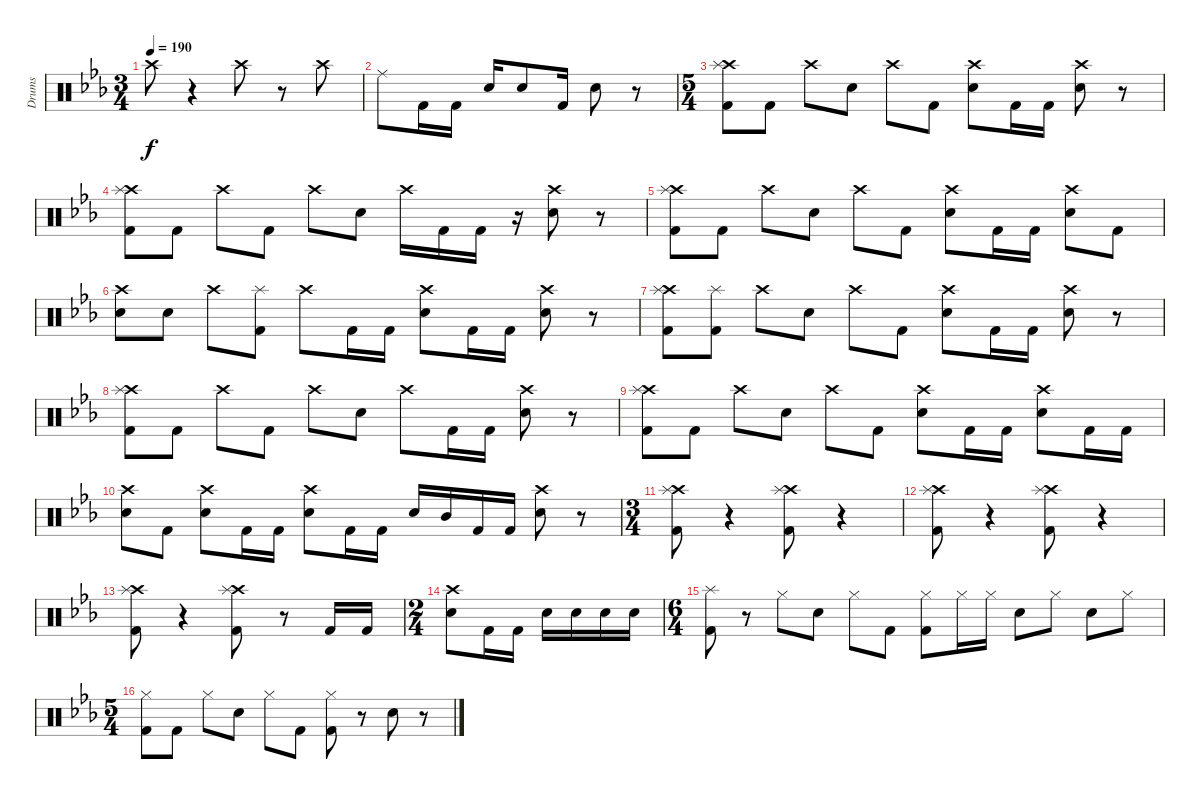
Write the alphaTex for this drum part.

\track ("Drums" "Drums") {instrument percussion}
\staff {score}
\articulation defaults
\ts (3 4)
\tempo 190
\clef neutral
\ks eb "Crash high (hit)".8{dy f}
r.4 "Crash high (hit)".8 r.8 "Crash high (hit)".8 |
"Ride (middle)".8 "Kick (hit) 2".16 "Kick (hit) 2".16 "Electric Snare (hit)".16 "Electric Snare (hit)".8 "Kick (hit) 2".16 "Electric Snare (hit)".8 r.8 |
\ts (5 4)
("Kick (hit) 2" "Crash high (hit)" "Splash (hit)").8 "Kick (hit) 2".8 "Crash high (hit)".8 "Electric Snare (hit)".8 "Crash high (hit)".8 "Kick (hit) 2".8 ("Crash high (hit)" "Electric Snare (hit)").8 "Kick (hit) 2".16 "Kick (hit) 2".16 ("Crash high (hit)" "Electric Snare (hit)").8 r.8 |
("Kick (hit) 2" "Crash high (hit)" "Splash (hit)").8 "Kick (hit) 2".8 "Crash high (hit)".8 "Kick (hit) 2".8 "Crash high (hit)".8 "Electric Snare (hit)".8 "Crash high (hit)".16 "Kick (hit) 2".16 "Kick (hit) 2".16 r.16 ("Crash high (hit)" "Electric Snare (hit)").8 r.8 |
("Kick (hit) 2" "Crash high (hit)" "Splash (hit)").8 "Kick (hit) 2".8 "Crash high (hit)".8 "Electric Snare (hit)".8 "Crash high (hit)".8 "Kick (hit) 2".8 ("Crash high (hit)" "Electric Snare (hit)").8 "Kick (hit) 2".16 "Kick (hit) 2".16 ("Crash high (hit)" "Electric Snare (hit)").8 "Kick (hit) 2".8 |
("Crash high (hit)" "Electric Snare (hit)").8 "Electric Snare (hit)".8 "Crash high (hit)".8 ("Kick (hit) 2" "Splash (hit)").8 "Crash high (hit)".8 "Kick (hit) 2".16 "Kick (hit) 2".16 ("Crash high (hit)" "Electric Snare (hit)").8 "Kick (hit) 2".16 "Kick (hit) 2".16 ("Crash high (hit)" "Electric Snare (hit)").8 r.8 |
("Kick (hit) 2" "Crash high (hit)" "Splash (hit)").8 ("Kick (hit) 2" "Splash (hit)").8 "Crash high (hit)".8 "Electric Snare (hit)".8 "Crash high (hit)".8 "Kick (hit) 2".8 ("Crash high (hit)" "Electric Snare (hit)").8 "Kick (hit) 2".16 "Kick (hit) 2".16 ("Crash high (hit)" "Electric Snare (hit)").8 r.8 |
("Kick (hit) 2" "Crash high (hit)" "Splash (hit)").8 "Kick (hit) 2".8 "Crash high (hit)".8 "Kick (hit) 2".8 "Crash high (hit)".8 "Electric Snare (hit)".8 "Crash high (hit)".8 "Kick (hit) 2".16 "Kick (hit) 2".16 ("Crash high (hit)" "Electric Snare (hit)").8 r.8 |
("Kick (hit) 2" "Crash high (hit)" "Splash (hit)").8 "Kick (hit) 2".8 "Crash high (hit)".8 "Electric Snare (hit)".8 "Crash high (hit)".8 "Kick (hit) 2".8 ("Crash high (hit)" "Electric Snare (hit)").8 "Kick (hit) 2".16 "Kick (hit) 2".16 ("Crash high (hit)" "Electric Snare (hit)").8 "Kick (hit) 2".16 "Kick (hit) 2".16 |
("Crash high (hit)" "Electric Snare (hit)").8 "Kick (hit) 2".8 ("Crash high (hit)" "Electric Snare (hit)").8 "Kick (hit) 2".16 "Kick (hit) 2".16 ("Crash high (hit)" "Electric Snare (hit)").8 "Kick (hit) 2".16 "Kick (hit) 2".16 "Electric Snare (hit)".16 "Mid Tom (hit)".16 "Kick (hit) 2".16 "Kick (hit) 2".16 ("Crash high (hit)" "Electric Snare (hit)").8 r.8 |
\ts (3 4)
("Kick (hit) 2" "Crash high (hit)" "Splash (hit)").8 r.4 ("Kick (hit) 2" "Crash high (hit)" "Splash (hit)").8 r.4 |
("Kick (hit) 2" "Crash high (hit)" "Splash (hit)").8 r.4 ("Kick (hit) 2" "Crash high (hit)" "Splash (hit)").8 r.4 |
("Kick (hit) 2" "Crash high (hit)" "Splash (hit)").8 r.4 ("Kick (hit) 2" "Crash high (hit)" "Splash (hit)").8 r.8 "Kick (hit) 2".16 "Kick (hit) 2".16 |
\ts (2 4)
("Crash high (hit)" "Electric Snare (hit)").8 "Kick (hit) 2".16 "Kick (hit) 2".16 "Electric Snare (hit)".16 "Electric Snare (hit)".16 "Electric Snare (hit)".16 "Electric Snare (hit)".16 |
\ts (6 4)
("Kick (hit) 2" "Splash (hit)").8 r.8 "Hi-Hat (closed)".8 "Electric Snare (hit)".8 "Hi-Hat (closed)".8 "Kick (hit) 2".8 ("Kick (hit) 2" "Hi-Hat (closed)").8 "Hi-Hat (closed)".16 "Hi-Hat (closed)".16 "Electric Snare (hit)".8 "Hi-Hat (closed)".8 "Electric Snare (hit)".8 "Hi-Hat (closed)".8 |
\ts (5 4)
("Kick (hit) 2" "Hi-Hat (closed)").8 "Kick (hit) 2".8 "Hi-Hat (closed)".8 "Electric Snare (hit)".8 "Hi-Hat (closed)".8 "Kick (hit) 2".8 ("Kick (hit) 2" "Hi-Hat (closed)").8 r.8 "Electric Snare (hit)".8 r.8
